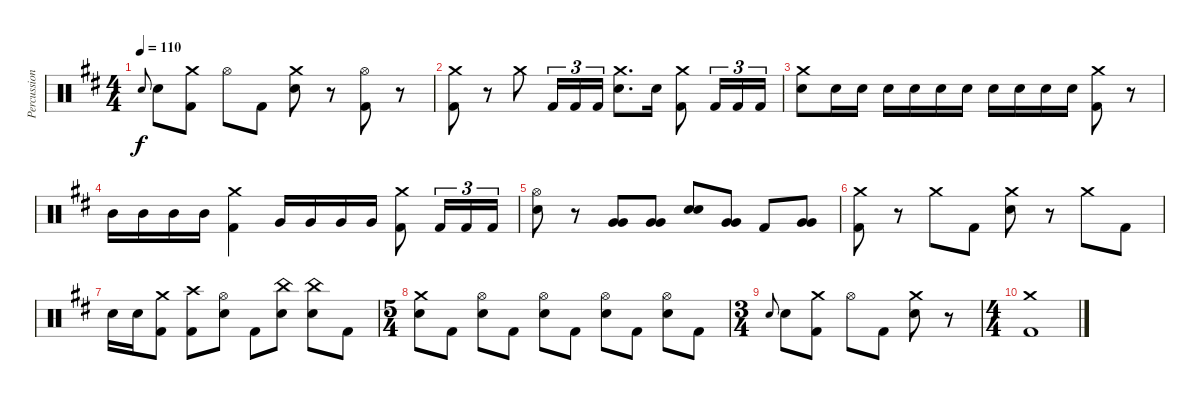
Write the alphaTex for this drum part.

\track ("Percussion" "Percussion") {instrument percussion}
\staff {score}
\articulation defaults
\ts (4 4)
\tempo 110
\clef neutral
\ks bminor "Snare (hit) 2".8{gr onbeat dy f} "Snare (hit) 2".8
("Crash medium (hit)" "Kick (hit) 2").8 "Hi-Hat (open)".8 "Kick (hit) 2".8 ("Crash medium (hit)" "Snare (hit) 2").8 r.8 ("Hi-Hat (open)" "Kick (hit) 2").8 r.8 |
("Crash medium (hit)" "Kick (hit) 2").8 r.8 "Crash medium (hit)".8 "Kick (hit) 2".16{tu (3 2)} "Kick (hit) 2".16{tu (3 2)} "Kick (hit) 2".16{tu (3 2)} ("Crash medium (hit)" "Snare (hit) 2").8{d} "Snare (hit) 2".16 ("Crash medium (hit)" "Kick (hit) 2").8 "Kick (hit) 2".16{tu (3 2)} "Kick (hit) 2".16{tu (3 2)} "Kick (hit) 2".16{tu (3 2)} |
("Crash medium (hit)" "Snare (hit) 2").8 "Snare (hit) 2".16 "Snare (hit) 2".16 "Snare (hit) 2".16 "Snare (hit) 2".16 "Snare (hit) 2".16 "Snare (hit) 2".16 "Snare (hit) 2".16 "Snare (hit) 2".16 "Snare (hit) 2".16 "Snare (hit) 2".16 ("Crash medium (hit)" "Kick (hit) 2").8 r.8 |
"Mid Tom (hit)".16 "Mid Tom (hit)".16 "Mid Tom (hit)".16 "Mid Tom (hit)".16 ("Crash medium (hit)" "Kick (hit) 2").4 "Very Low Tom (hit)".16 "Very Low Tom (hit)".16 "Very Low Tom (hit)".16 "Very Low Tom (hit)".16 ("Crash medium (hit)" "Kick (hit) 2").8 "Kick (hit) 2".16{tu (3 2)} "Kick (hit) 2".16{tu (3 2)} "Kick (hit) 2".16{tu (3 2)} |
("Hi-Hat (open)" "Snare (hit) 2").8 r.8 ("Very Low Tom (hit)" "Very Low Tom (hit)").8{bu 60} ("Very Low Tom (hit)" "Very Low Tom (hit)").8{bu 60} ("Snare (hit) 2" "Snare (hit) 2").8{bu 60} ("Very Low Tom (hit)" "Very Low Tom (hit)").8{bu 60} "Kick (hit) 2".8 ("Very Low Tom (hit)" "Very Low Tom (hit)").8{bu 60} |
("Crash medium (hit)" "Kick (hit) 2").8 r.8 "Crash medium (hit)".8 "Kick (hit) 2".8 ("Crash medium (hit)" "Snare (hit) 2").8 r.8 "Crash medium (hit)".8 "Kick (hit) 2".8 |
"Snare (hit) 2".16 "Snare (hit) 2".16 ("Crash medium (hit)" "Kick (hit) 2").8 ("Crash high (hit)" "Kick (hit) 2").8 ("Hi-Hat (open)" "Snare (hit) 2").8 "Kick (hit) 2".8 ("China (hit)" "Snare (hit) 2").8 ("China (hit)" "Snare (hit) 2").8 "Kick (hit) 2".8 |
\ts (5 4)
("Crash medium (hit)" "Snare (hit) 2").8 "Kick (hit) 2".8 ("Hi-Hat (open)" "Snare (hit) 2").8 "Kick (hit) 2".8 ("Hi-Hat (open)" "Snare (hit) 2").8 "Kick (hit) 2".8 ("Hi-Hat (open)" "Snare (hit) 2").8 "Kick (hit) 2".8 ("Hi-Hat (open)" "Snare (hit) 2").8 "Kick (hit) 2".8 |
\ts (3 4)
"Snare (hit) 2".8{gr onbeat} "Snare (hit) 2".8 ("Crash medium (hit)" "Kick (hit) 2").8 "Hi-Hat (open)".8 "Kick (hit) 2".8 ("Crash medium (hit)" "Snare (hit) 2").8 r.8 |
\ts (4 4)
("Crash medium (hit)" "Kick (hit) 2").1{volume 0}
